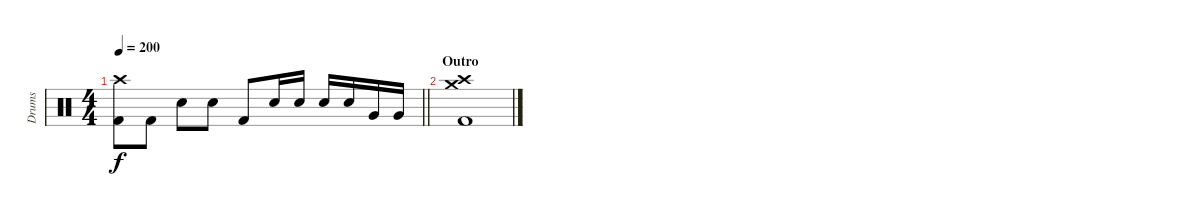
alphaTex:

\track ("Drums" "Drums") {instrument percussion}
\staff {score}
\articulation defaults
\ts (4 4)
\tempo 200
\clef neutral
\barLineRight lightlight
\ks c
("Crash high (hit)" "Kick (hit) 2").8{dy f} "Kick (hit) 2".8 "Electric Snare (hit)".8 "Electric Snare (hit)".8 "Kick (hit) 2".8 "Electric Snare (hit)".16 "Electric Snare (hit)".16 "Electric Snare (hit)".16 "Electric Snare (hit)".16 "Very Low Tom (hit)".16 "Very Low Tom (hit)".16 |
\section ("" "Outro")
("Crash medium (hit)" "Crash high (hit)" "Kick (hit) 2").1
